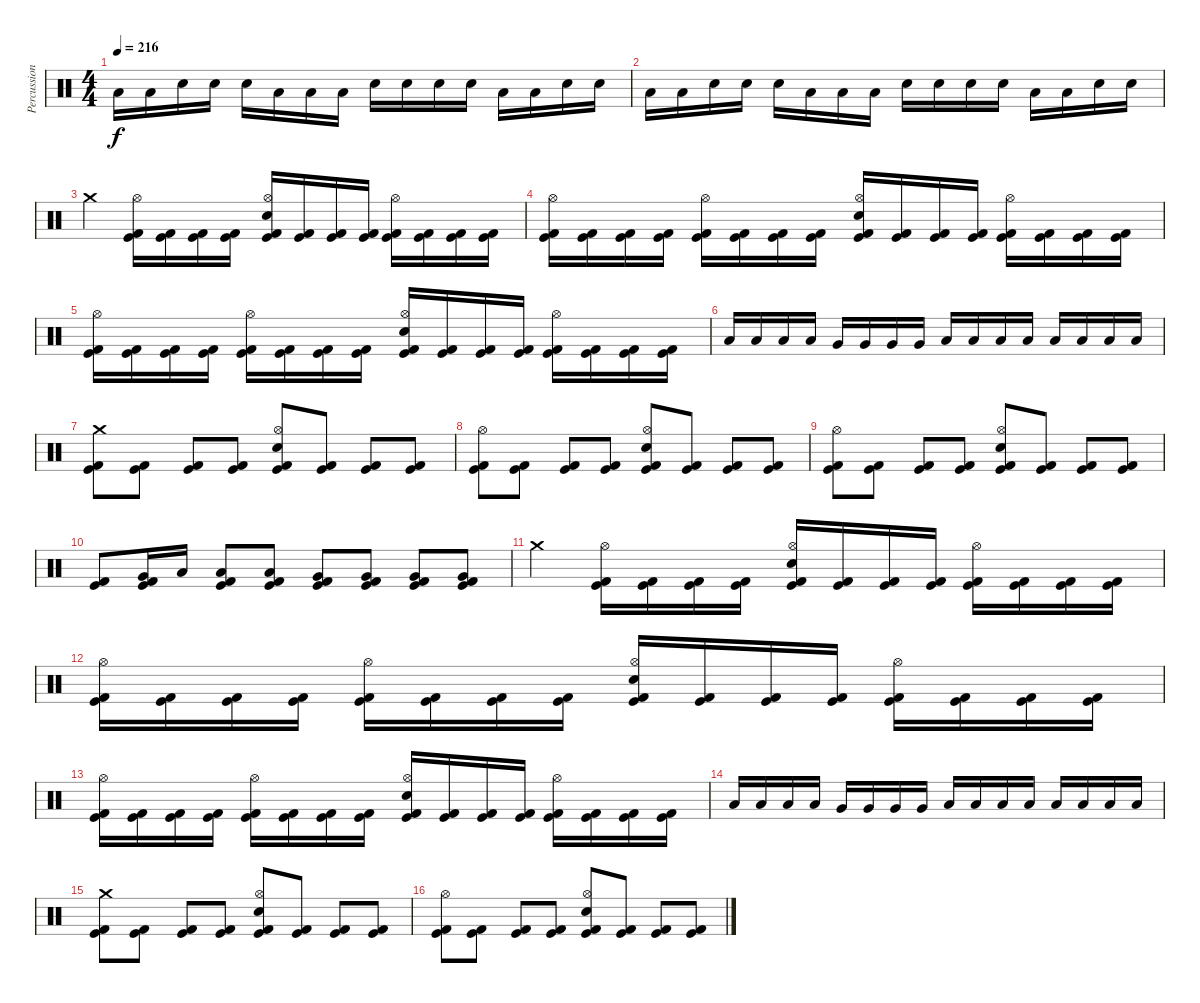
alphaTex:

\track ("Percussions" "Percussion") {instrument percussion}
\staff {score}
\articulation defaults
\ts (4 4)
\tempo 216
\clef neutral
\ks c "Low Tom (hit)".16{dy f} "Low Tom (hit)".16 "Electric Snare (hit)".16 "Electric Snare (hit)".16 "Electric Snare (hit)".16 "Low Floor Tom (hit)".16 "Low Floor Tom (hit)".16 "Low Floor Tom (hit)".16 "Electric Snare (hit)".16 "Electric Snare (hit)".16 "Electric Snare (hit)".16 "Electric Snare (hit)".16 "Low Tom (hit)".16 "Low Tom (hit)".16 "Electric Snare (hit)".16 "Electric Snare (hit)".16
|
"Low Tom (hit)".16 "Low Tom (hit)".16 "Electric Snare (hit)".16 "Electric Snare (hit)".16 "Electric Snare (hit)".16 "Low Floor Tom (hit)".16 "Low Floor Tom (hit)".16 "Low Floor Tom (hit)".16 "Electric Snare (hit)".16 "Electric Snare (hit)".16 "Electric Snare (hit)".16 "Electric Snare (hit)".16 "Low Tom (hit)".16 "Low Tom (hit)".16 "Electric Snare (hit)".16 "Electric Snare (hit)".16 |
"Crash medium (hit)".4 ("Hi-Hat (open)" "Kick (hit)" "Kick (hit) 2").16 ("Kick (hit)" "Kick (hit) 2").16 ("Kick (hit)" "Kick (hit) 2").16 ("Kick (hit)" "Kick (hit) 2").16 ("Hi-Hat (open)" "Electric Snare (hit)" "Kick (hit)" "Kick (hit) 2").16 ("Kick (hit)" "Kick (hit) 2").16 ("Kick (hit)" "Kick (hit) 2").16 ("Kick (hit)" "Kick (hit) 2").16 ("Hi-Hat (open)" "Kick (hit)" "Kick (hit) 2").16 ("Kick (hit)" "Kick (hit) 2").16 ("Kick (hit)" "Kick (hit) 2").16 ("Kick (hit)" "Kick (hit) 2").16 |
("Hi-Hat (open)" "Kick (hit)" "Kick (hit) 2").16 ("Kick (hit)" "Kick (hit) 2").16 ("Kick (hit)" "Kick (hit) 2").16 ("Kick (hit)" "Kick (hit) 2").16 ("Hi-Hat (open)" "Kick (hit)" "Kick (hit) 2").16 ("Kick (hit)" "Kick (hit) 2").16 ("Kick (hit)" "Kick (hit) 2").16 ("Kick (hit)" "Kick (hit) 2").16 ("Hi-Hat (open)" "Electric Snare (hit)" "Kick (hit)" "Kick (hit) 2").16 ("Kick (hit)" "Kick (hit) 2").16 ("Kick (hit)" "Kick (hit) 2").16 ("Kick (hit)" "Kick (hit) 2").16 ("Hi-Hat (open)" "Kick (hit)" "Kick (hit) 2").16 ("Kick (hit)" "Kick (hit) 2").16 ("Kick (hit)" "Kick (hit) 2").16 ("Kick (hit)" "Kick (hit) 2").16 |
("Hi-Hat (open)" "Kick (hit)" "Kick (hit) 2").16 ("Kick (hit)" "Kick (hit) 2").16 ("Kick (hit)" "Kick (hit) 2").16 ("Kick (hit)" "Kick (hit) 2").16 ("Hi-Hat (open)" "Kick (hit)" "Kick (hit) 2").16 ("Kick (hit)" "Kick (hit) 2").16 ("Kick (hit)" "Kick (hit) 2").16 ("Kick (hit)" "Kick (hit) 2").16 ("Hi-Hat (open)" "Electric Snare (hit)" "Kick (hit)" "Kick (hit) 2").16 ("Kick (hit)" "Kick (hit) 2").16 ("Kick (hit)" "Kick (hit) 2").16 ("Kick (hit)" "Kick (hit) 2").16 ("Hi-Hat (open)" "Kick (hit)" "Kick (hit) 2").16 ("Kick (hit)" "Kick (hit) 2").16 ("Kick (hit)" "Kick (hit) 2").16 ("Kick (hit)" "Kick (hit) 2").16 |
"Low Tom (hit)".16 "Low Tom (hit)".16 "Low Tom (hit)".16 "Low Tom (hit)".16 "Very Low Tom (hit)".16 "Very Low Tom (hit)".16 "Very Low Tom (hit)".16 "Very Low Tom (hit)".16 "Low Tom (hit)".16 "Low Tom (hit)".16 "Low Tom (hit)".16 "Low Tom (hit)".16 "Low Floor Tom (hit)".16 "Low Floor Tom (hit)".16 "Low Floor Tom (hit)".16 "Low Floor Tom (hit)".16 |
("Crash medium (hit)" "Kick (hit)" "Kick (hit) 2").8 ("Kick (hit)" "Kick (hit) 2").8 ("Kick (hit)" "Kick (hit) 2").8 ("Kick (hit)" "Kick (hit) 2").8 ("Hi-Hat (open)" "Electric Snare (hit)" "Kick (hit)" "Kick (hit) 2").8 ("Kick (hit)" "Kick (hit) 2").8 ("Kick (hit)" "Kick (hit) 2").8 ("Kick (hit)" "Kick (hit) 2").8 |
("Hi-Hat (open)" "Kick (hit)" "Kick (hit) 2").8 ("Kick (hit)" "Kick (hit) 2").8 ("Kick (hit)" "Kick (hit) 2").8 ("Kick (hit)" "Kick (hit) 2").8 ("Hi-Hat (open)" "Electric Snare (hit)" "Kick (hit)" "Kick (hit) 2").8 ("Kick (hit)" "Kick (hit) 2").8 ("Kick (hit)" "Kick (hit) 2").8 ("Kick (hit)" "Kick (hit) 2").8 |
("Hi-Hat (open)" "Kick (hit)" "Kick (hit) 2").8 ("Kick (hit)" "Kick (hit) 2").8 ("Kick (hit)" "Kick (hit) 2").8 ("Kick (hit)" "Kick (hit) 2").8 ("Hi-Hat (open)" "Electric Snare (hit)" "Kick (hit)" "Kick (hit) 2").8 ("Kick (hit)" "Kick (hit) 2").8 ("Kick (hit)" "Kick (hit) 2").8 ("Kick (hit)" "Kick (hit) 2").8 |
("Kick (hit)" "Kick (hit) 2").8 ("Very Low Tom (hit)" "Kick (hit)" "Kick (hit) 2").16 "Low Tom (hit)".16 ("Low Tom (hit)" "Kick (hit)" "Kick (hit) 2").8 ("Low Tom (hit)" "Kick (hit)" "Kick (hit) 2").8 ("Very Low Tom (hit)" "Kick (hit)" "Kick (hit) 2").8 ("Very Low Tom (hit)" "Kick (hit)" "Kick (hit) 2").8 ("Very Low Tom (hit)" "Kick (hit)" "Kick (hit) 2").8 ("Very Low Tom (hit)" "Kick (hit)" "Kick (hit) 2").8 |
"Crash medium (hit)".4 ("Hi-Hat (open)" "Kick (hit)" "Kick (hit) 2").16 ("Kick (hit)" "Kick (hit) 2").16 ("Kick (hit)" "Kick (hit) 2").16 ("Kick (hit)" "Kick (hit) 2").16 ("Hi-Hat (open)" "Electric Snare (hit)" "Kick (hit)" "Kick (hit) 2").16 ("Kick (hit)" "Kick (hit) 2").16 ("Kick (hit)" "Kick (hit) 2").16 ("Kick (hit)" "Kick (hit) 2").16 ("Hi-Hat (open)" "Kick (hit)" "Kick (hit) 2").16 ("Kick (hit)" "Kick (hit) 2").16 ("Kick (hit)" "Kick (hit) 2").16 ("Kick (hit)" "Kick (hit) 2").16 |
("Hi-Hat (open)" "Kick (hit)" "Kick (hit) 2").16 ("Kick (hit)" "Kick (hit) 2").16 ("Kick (hit)" "Kick (hit) 2").16 ("Kick (hit)" "Kick (hit) 2").16 ("Hi-Hat (open)" "Kick (hit)" "Kick (hit) 2").16 ("Kick (hit)" "Kick (hit) 2").16 ("Kick (hit)" "Kick (hit) 2").16 ("Kick (hit)" "Kick (hit) 2").16 ("Hi-Hat (open)" "Electric Snare (hit)" "Kick (hit)" "Kick (hit) 2").16 ("Kick (hit)" "Kick (hit) 2").16 ("Kick (hit)" "Kick (hit) 2").16 ("Kick (hit)" "Kick (hit) 2").16 ("Hi-Hat (open)" "Kick (hit)" "Kick (hit) 2").16 ("Kick (hit)" "Kick (hit) 2").16 ("Kick (hit)" "Kick (hit) 2").16 ("Kick (hit)" "Kick (hit) 2").16 |
("Hi-Hat (open)" "Kick (hit)" "Kick (hit) 2").16 ("Kick (hit)" "Kick (hit) 2").16 ("Kick (hit)" "Kick (hit) 2").16 ("Kick (hit)" "Kick (hit) 2").16 ("Hi-Hat (open)" "Kick (hit)" "Kick (hit) 2").16 ("Kick (hit)" "Kick (hit) 2").16 ("Kick (hit)" "Kick (hit) 2").16 ("Kick (hit)" "Kick (hit) 2").16 ("Hi-Hat (open)" "Electric Snare (hit)" "Kick (hit)" "Kick (hit) 2").16 ("Kick (hit)" "Kick (hit) 2").16 ("Kick (hit)" "Kick (hit) 2").16 ("Kick (hit)" "Kick (hit) 2").16 ("Hi-Hat (open)" "Kick (hit)" "Kick (hit) 2").16 ("Kick (hit)" "Kick (hit) 2").16 ("Kick (hit)" "Kick (hit) 2").16 ("Kick (hit)" "Kick (hit) 2").16 |
"Low Tom (hit)".16 "Low Tom (hit)".16 "Low Tom (hit)".16 "Low Tom (hit)".16 "Very Low Tom (hit)".16 "Very Low Tom (hit)".16 "Very Low Tom (hit)".16 "Very Low Tom (hit)".16 "Low Tom (hit)".16 "Low Tom (hit)".16 "Low Tom (hit)".16 "Low Tom (hit)".16 "Low Floor Tom (hit)".16 "Low Floor Tom (hit)".16 "Low Floor Tom (hit)".16 "Low Floor Tom (hit)".16 |
("Crash medium (hit)" "Kick (hit)" "Kick (hit) 2").8 ("Kick (hit)" "Kick (hit) 2").8 ("Kick (hit)" "Kick (hit) 2").8 ("Kick (hit)" "Kick (hit) 2").8 ("Hi-Hat (open)" "Electric Snare (hit)" "Kick (hit)" "Kick (hit) 2").8 ("Kick (hit)" "Kick (hit) 2").8 ("Kick (hit)" "Kick (hit) 2").8 ("Kick (hit)" "Kick (hit) 2").8 |
("Hi-Hat (open)" "Kick (hit)" "Kick (hit) 2").8 ("Kick (hit)" "Kick (hit) 2").8 ("Kick (hit)" "Kick (hit) 2").8 ("Kick (hit)" "Kick (hit) 2").8 ("Hi-Hat (open)" "Electric Snare (hit)" "Kick (hit)" "Kick (hit) 2").8 ("Kick (hit)" "Kick (hit) 2").8 ("Kick (hit)" "Kick (hit) 2").8 ("Kick (hit)" "Kick (hit) 2").8
